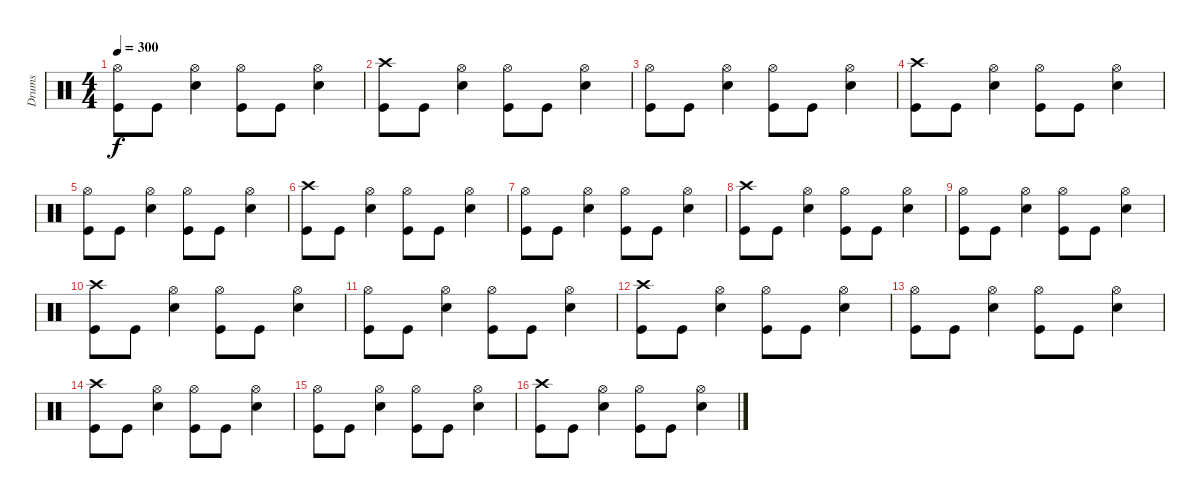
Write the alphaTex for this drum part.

\track ("Drums" "Drums") {instrument percussion}
\staff {score}
\articulation defaults
\ts (4 4)
\tempo 300
\clef neutral
\ks c
("Hi-Hat (open)" "Kick (hit)").8{dy f} "Kick (hit)".8 ("Hi-Hat (open)" "Electric Snare (hit)").4 ("Hi-Hat (open)" "Kick (hit)").8 "Kick (hit)".8 ("Hi-Hat (open)" "Electric Snare (hit)").4 |
("Crash high (hit)" "Kick (hit)").8 "Kick (hit)".8 ("Hi-Hat (open)" "Electric Snare (hit)").4 ("Hi-Hat (open)" "Kick (hit)").8 "Kick (hit)".8 ("Hi-Hat (open)" "Electric Snare (hit)").4 |
("Hi-Hat (open)" "Kick (hit)").8 "Kick (hit)".8 ("Hi-Hat (open)" "Electric Snare (hit)").4 ("Hi-Hat (open)" "Kick (hit)").8 "Kick (hit)".8 ("Hi-Hat (open)" "Electric Snare (hit)").4 |
("Crash high (hit)" "Kick (hit)").8 "Kick (hit)".8 ("Hi-Hat (open)" "Electric Snare (hit)").4 ("Hi-Hat (open)" "Kick (hit)").8 "Kick (hit)".8 ("Hi-Hat (open)" "Electric Snare (hit)").4 |
("Hi-Hat (open)" "Kick (hit)").8 "Kick (hit)".8 ("Hi-Hat (open)" "Electric Snare (hit)").4 ("Hi-Hat (open)" "Kick (hit)").8 "Kick (hit)".8 ("Hi-Hat (open)" "Electric Snare (hit)").4 |
("Crash high (hit)" "Kick (hit)").8 "Kick (hit)".8 ("Hi-Hat (open)" "Electric Snare (hit)").4 ("Hi-Hat (open)" "Kick (hit)").8 "Kick (hit)".8 ("Hi-Hat (open)" "Electric Snare (hit)").4 |
("Hi-Hat (open)" "Kick (hit)").8 "Kick (hit)".8 ("Hi-Hat (open)" "Electric Snare (hit)").4 ("Hi-Hat (open)" "Kick (hit)").8 "Kick (hit)".8 ("Hi-Hat (open)" "Electric Snare (hit)").4 |
("Crash high (hit)" "Kick (hit)").8 "Kick (hit)".8 ("Hi-Hat (open)" "Electric Snare (hit)").4 ("Hi-Hat (open)" "Kick (hit)").8 "Kick (hit)".8 ("Hi-Hat (open)" "Electric Snare (hit)").4 |
("Hi-Hat (open)" "Kick (hit)").8 "Kick (hit)".8 ("Hi-Hat (open)" "Electric Snare (hit)").4 ("Hi-Hat (open)" "Kick (hit)").8 "Kick (hit)".8 ("Hi-Hat (open)" "Electric Snare (hit)").4 |
("Crash high (hit)" "Kick (hit)").8 "Kick (hit)".8 ("Hi-Hat (open)" "Electric Snare (hit)").4 ("Hi-Hat (open)" "Kick (hit)").8 "Kick (hit)".8 ("Hi-Hat (open)" "Electric Snare (hit)").4 |
("Hi-Hat (open)" "Kick (hit)").8 "Kick (hit)".8 ("Hi-Hat (open)" "Electric Snare (hit)").4 ("Hi-Hat (open)" "Kick (hit)").8 "Kick (hit)".8 ("Hi-Hat (open)" "Electric Snare (hit)").4 |
("Crash high (hit)" "Kick (hit)").8 "Kick (hit)".8 ("Hi-Hat (open)" "Electric Snare (hit)").4 ("Hi-Hat (open)" "Kick (hit)").8 "Kick (hit)".8 ("Hi-Hat (open)" "Electric Snare (hit)").4 |
("Hi-Hat (open)" "Kick (hit)").8 "Kick (hit)".8 ("Hi-Hat (open)" "Electric Snare (hit)").4 ("Hi-Hat (open)" "Kick (hit)").8 "Kick (hit)".8 ("Hi-Hat (open)" "Electric Snare (hit)").4 |
("Crash high (hit)" "Kick (hit)").8 "Kick (hit)".8 ("Hi-Hat (open)" "Electric Snare (hit)").4 ("Hi-Hat (open)" "Kick (hit)").8 "Kick (hit)".8 ("Hi-Hat (open)" "Electric Snare (hit)").4 |
("Hi-Hat (open)" "Kick (hit)").8 "Kick (hit)".8 ("Hi-Hat (open)" "Electric Snare (hit)").4 ("Hi-Hat (open)" "Kick (hit)").8 "Kick (hit)".8 ("Hi-Hat (open)" "Electric Snare (hit)").4 |
("Crash high (hit)" "Kick (hit)").8 "Kick (hit)".8 ("Hi-Hat (open)" "Electric Snare (hit)").4 ("Hi-Hat (open)" "Kick (hit)").8 "Kick (hit)".8 ("Hi-Hat (open)" "Electric Snare (hit)").4
